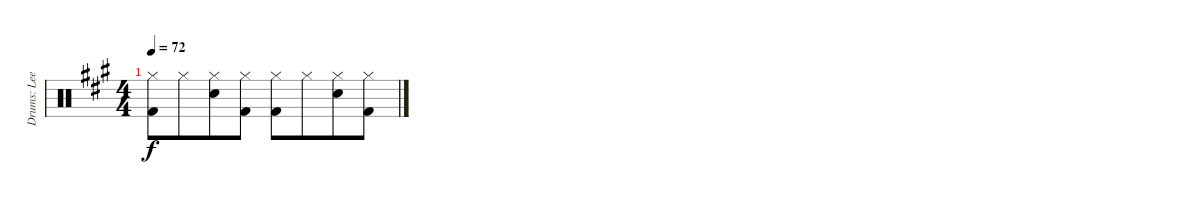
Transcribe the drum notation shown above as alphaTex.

\track ("Drums: Lee" "Drums: Lee") {instrument percussion}
\staff {score}
\articulation defaults
\ts (4 4)
\tempo 72
\clef neutral
\ks a
("Hi-Hat (closed)" "Kick (hit) 2").8{dy f} "Hi-Hat (closed)".8{beam merge} ("Hi-Hat (closed)" "Snare (hit) 2").8 ("Hi-Hat (closed)" "Kick (hit) 2").8 ("Hi-Hat (closed)" "Kick (hit) 2").8 "Hi-Hat (closed)".8{beam merge} ("Hi-Hat (closed)" "Snare (hit) 2").8 ("Hi-Hat (closed)" "Kick (hit) 2").8
